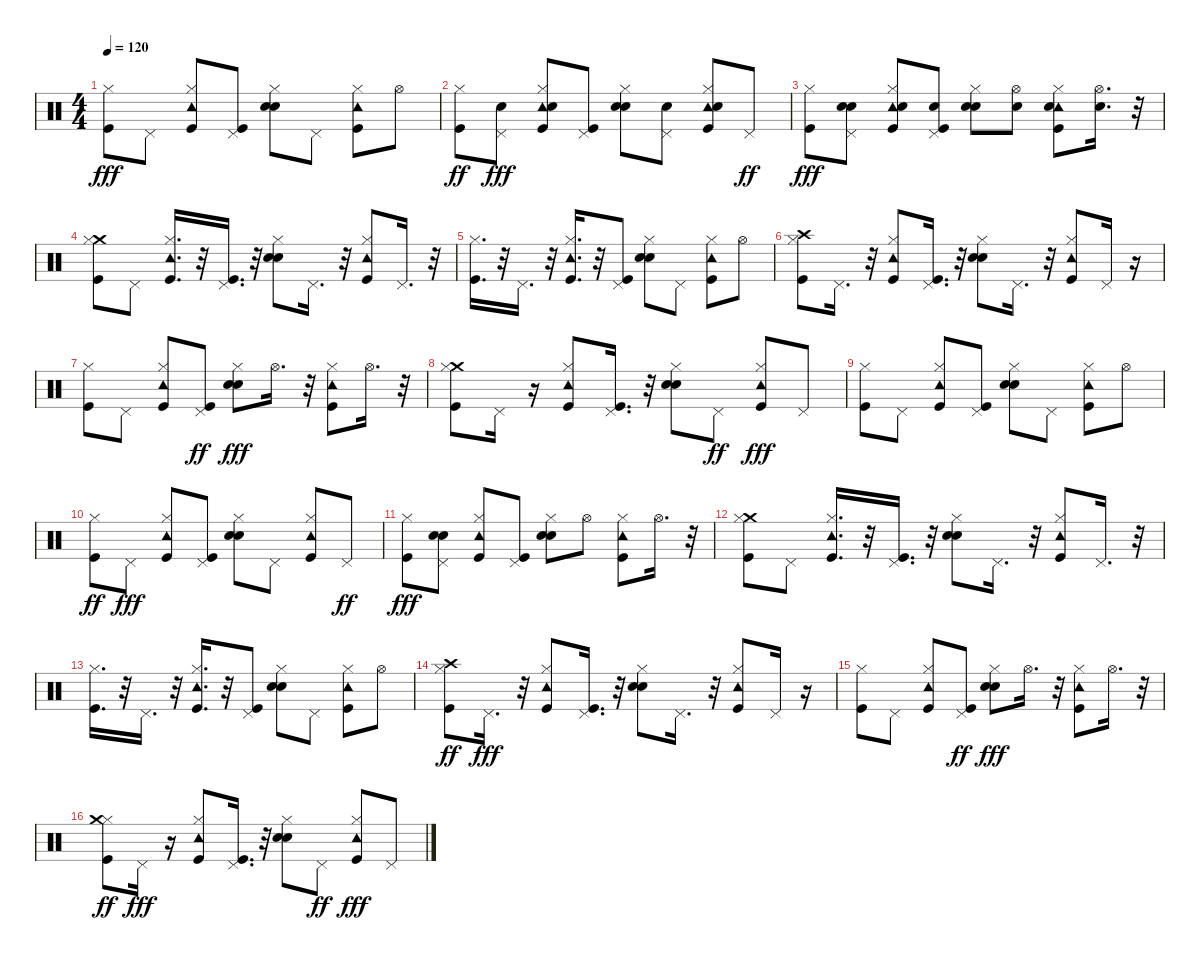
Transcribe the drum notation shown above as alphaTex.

\track "" {instrument percussion}
\staff {score}
\articulation defaults
\ts (4 4)
\tempo 120
\clef neutral
\ks c
("Kick (hit)" "Hi-Hat (closed)").8{dy fff} "Pedal Hi-Hat (hit)".8 ("Tambourine (hit)" "Hi-Hat (closed)" "Kick (hit)").8 ("Kick (hit)" "Pedal Hi-Hat (hit)").8 ("Hi-Hat (closed)" "Hand Clap (hit)" "Snare (hit) 2").8 "Pedal Hi-Hat (hit)".8 ("Tambourine (hit)" "Hi-Hat (closed)" "Kick (hit)").8 "Hi-Hat (open)".8 |
("Kick (hit)" "Hi-Hat (closed)").8{dy ff} ("Pedal Hi-Hat (hit)" "Snare (hit) 2").8{dy fff} ("Kick (hit)" "Hi-Hat (closed)" "Tambourine (hit)" "Snare (hit) 2").8 ("Kick (hit)" "Pedal Hi-Hat (hit)").8 ("Hand Clap (hit)" "Hi-Hat (closed)" "Snare (hit) 2").8 ("Pedal Hi-Hat (hit)" "Snare (hit) 2").8 ("Tambourine (hit)" "Kick (hit)" "Hi-Hat (closed)" "Snare (hit) 2").8 "Pedal Hi-Hat (hit)".8{dy ff} |
("Hi-Hat (closed)" "Kick (hit)").8{dy fff} ("Pedal Hi-Hat (hit)" "Hand Clap (hit)" "Snare (hit) 2").8 ("Tambourine (hit)" "Hi-Hat (closed)" "Kick (hit)" "Snare (hit) 2").8 ("Pedal Hi-Hat (hit)" "Kick (hit)" "Snare (hit) 2").8 ("Hi-Hat (closed)" "Hand Clap (hit)" "Snare (hit) 2").8 ("Hi-Hat (open)" "Snare (hit) 2").8 ("Tambourine (hit)" "Hi-Hat (closed)" "Kick (hit)" "Snare (hit) 2").8 ("Hi-Hat (open)" "Snare (hit) 2").16{d} r.32 |
("Crash medium (hit)" "Kick (hit)" "Hi-Hat (closed)").8 "Pedal Hi-Hat (hit)".8 ("Hi-Hat (closed)" "Kick (hit)" "Tambourine (hit)").16{d} r.32 ("Pedal Hi-Hat (hit)" "Kick (hit)").16{d} r.32 ("Hand Clap (hit)" "Hi-Hat (closed)" "Snare (hit) 2").8 "Pedal Hi-Hat (hit)".16{d} r.32 ("Hi-Hat (closed)" "Kick (hit)" "Tambourine (hit)").8 "Pedal Hi-Hat (hit)".16{d} r.32 |
("Hi-Hat (closed)" "Kick (hit)").16{d} r.32 "Pedal Hi-Hat (hit)".16{d} r.32 ("Hi-Hat (closed)" "Kick (hit)" "Tambourine (hit)").16{d} r.32 ("Pedal Hi-Hat (hit)" "Kick (hit)").8 ("Hi-Hat (closed)" "Hand Clap (hit)" "Snare (hit) 2").8 "Pedal Hi-Hat (hit)".8 ("Hi-Hat (closed)" "Kick (hit)" "Tambourine (hit)").8 "Hi-Hat (open)".8 |
("Crash high (hit)" "Hi-Hat (closed)" "Kick (hit)").8 "Pedal Hi-Hat (hit)".16{d} r.32 ("Tambourine (hit)" "Kick (hit)" "Hi-Hat (closed)").8 ("Pedal Hi-Hat (hit)" "Kick (hit)").16{d} r.32 ("Hi-Hat (closed)" "Hand Clap (hit)" "Snare (hit) 2").8 "Pedal Hi-Hat (hit)".16{d} r.32 ("Tambourine (hit)" "Hi-Hat (closed)" "Kick (hit)").8 "Pedal Hi-Hat (hit)".16 r.16 |
("Kick (hit)" "Hi-Hat (closed)").8 "Pedal Hi-Hat (hit)".8 ("Tambourine (hit)" "Hi-Hat (closed)" "Kick (hit)").8 ("Kick (hit)" "Pedal Hi-Hat (hit)").8{dy ff} ("Hi-Hat (closed)" "Hand Clap (hit)" "Snare (hit) 2").8{dy fff} "Hi-Hat (open)".16{d} r.32 ("Hi-Hat (closed)" "Kick (hit)" "Tambourine (hit)").8 "Hi-Hat (open)".16{d} r.32 |
("Crash medium (hit)" "Kick (hit)" "Hi-Hat (closed)").8 "Pedal Hi-Hat (hit)".16 r.16 ("Kick (hit)" "Hi-Hat (closed)" "Tambourine (hit)").8 ("Kick (hit)" "Pedal Hi-Hat (hit)").16{d} r.32 ("Hand Clap (hit)" "Hi-Hat (closed)" "Snare (hit) 2").8 "Pedal Hi-Hat (hit)".8{dy ff} ("Hi-Hat (closed)" "Kick (hit)" "Tambourine (hit)").8{dy fff} "Pedal Hi-Hat (hit)".8 |
("Kick (hit)" "Hi-Hat (closed)").8 "Pedal Hi-Hat (hit)".8 ("Tambourine (hit)" "Hi-Hat (closed)" "Kick (hit)").8 ("Kick (hit)" "Pedal Hi-Hat (hit)").8 ("Hi-Hat (closed)" "Hand Clap (hit)" "Snare (hit) 2").8 "Pedal Hi-Hat (hit)".8 ("Tambourine (hit)" "Hi-Hat (closed)" "Kick (hit)").8 "Hi-Hat (open)".8 |
("Kick (hit)" "Hi-Hat (closed)").8{dy ff} "Pedal Hi-Hat (hit)".8{dy fff} ("Kick (hit)" "Hi-Hat (closed)" "Tambourine (hit)").8 ("Kick (hit)" "Pedal Hi-Hat (hit)").8 ("Hand Clap (hit)" "Hi-Hat (closed)" "Snare (hit) 2").8 "Pedal Hi-Hat (hit)".8 ("Tambourine (hit)" "Kick (hit)" "Hi-Hat (closed)").8 "Pedal Hi-Hat (hit)".8{dy ff} |
("Hi-Hat (closed)" "Kick (hit)").8{dy fff} ("Pedal Hi-Hat (hit)" "Hand Clap (hit)" "Snare (hit) 2").8 ("Tambourine (hit)" "Hi-Hat (closed)" "Kick (hit)").8 ("Pedal Hi-Hat (hit)" "Kick (hit)").8 ("Hi-Hat (closed)" "Hand Clap (hit)" "Snare (hit) 2").8 "Hi-Hat (open)".8 ("Tambourine (hit)" "Hi-Hat (closed)" "Kick (hit)").8 "Hi-Hat (open)".16{d} r.32 |
("Crash medium (hit)" "Kick (hit)" "Hi-Hat (closed)").8 "Pedal Hi-Hat (hit)".8 ("Hi-Hat (closed)" "Kick (hit)" "Tambourine (hit)").16{d} r.32 ("Pedal Hi-Hat (hit)" "Kick (hit)").16{d} r.32 ("Hand Clap (hit)" "Hi-Hat (closed)" "Snare (hit) 2").8 "Pedal Hi-Hat (hit)".16{d} r.32 ("Hi-Hat (closed)" "Kick (hit)" "Tambourine (hit)").8 "Pedal Hi-Hat (hit)".16{d} r.32 |
("Hi-Hat (closed)" "Kick (hit)").16{d} r.32 "Pedal Hi-Hat (hit)".16{d} r.32 ("Hi-Hat (closed)" "Kick (hit)" "Tambourine (hit)").16{d} r.32 ("Pedal Hi-Hat (hit)" "Kick (hit)").8 ("Hi-Hat (closed)" "Hand Clap (hit)" "Snare (hit) 2").8 "Pedal Hi-Hat (hit)".8 ("Hi-Hat (closed)" "Kick (hit)" "Tambourine (hit)").8 "Hi-Hat (open)".8 |
("Hi-Hat (closed)" "Kick (hit)" "Crash high (hit)").8{dy ff} "Pedal Hi-Hat (hit)".16{d dy fff} r.32 ("Tambourine (hit)" "Kick (hit)" "Hi-Hat (closed)").8 ("Pedal Hi-Hat (hit)" "Kick (hit)").16{d} r.32 ("Hi-Hat (closed)" "Hand Clap (hit)" "Snare (hit) 2").8 "Pedal Hi-Hat (hit)".16{d} r.32 ("Tambourine (hit)" "Hi-Hat (closed)" "Kick (hit)").8 "Pedal Hi-Hat (hit)".16 r.16 |
("Kick (hit)" "Hi-Hat (closed)").8 "Pedal Hi-Hat (hit)".8 ("Tambourine (hit)" "Hi-Hat (closed)" "Kick (hit)").8 ("Kick (hit)" "Pedal Hi-Hat (hit)").8{dy ff} ("Hi-Hat (closed)" "Hand Clap (hit)" "Snare (hit) 2").8{dy fff} "Hi-Hat (open)".16{d} r.32 ("Hi-Hat (closed)" "Kick (hit)" "Tambourine (hit)").8 "Hi-Hat (open)".16{d} r.32 |
("Kick (hit)" "Hi-Hat (closed)" "Crash medium (hit)").8{dy ff} "Pedal Hi-Hat (hit)".16{dy fff} r.16 ("Kick (hit)" "Hi-Hat (closed)" "Tambourine (hit)").8 ("Kick (hit)" "Pedal Hi-Hat (hit)").16{d} r.32 ("Hand Clap (hit)" "Hi-Hat (closed)" "Snare (hit) 2").8 "Pedal Hi-Hat (hit)".8{dy ff} ("Hi-Hat (closed)" "Kick (hit)" "Tambourine (hit)").8{dy fff} "Pedal Hi-Hat (hit)".8
